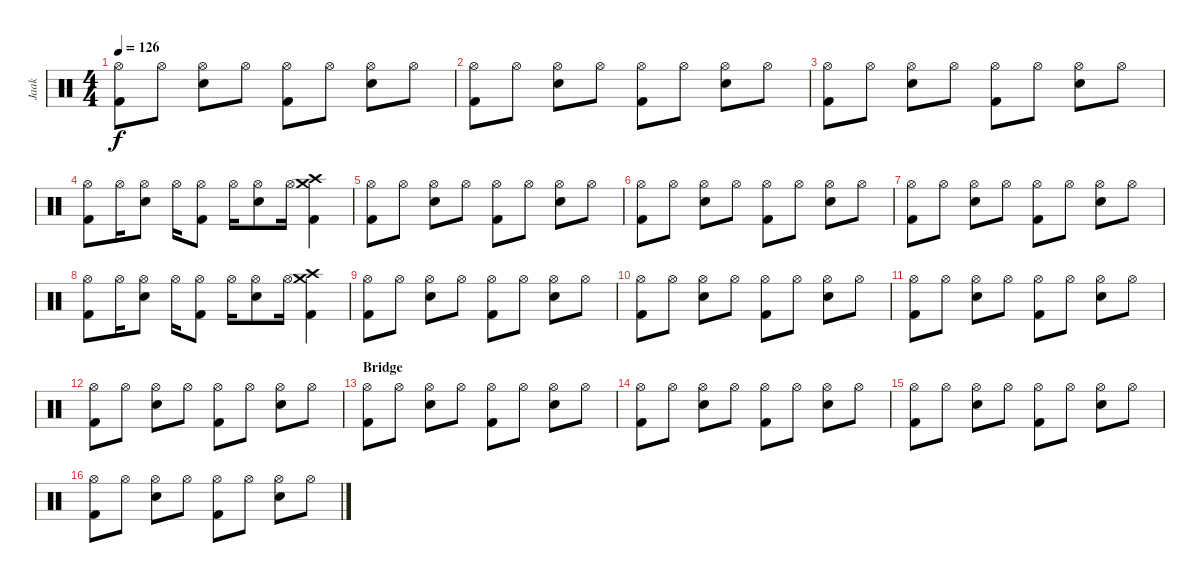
\track ("Jaak" "Jaak") {instrument percussion}
\staff {score}
\articulation defaults
\ts (4 4)
\tempo 126
\clef neutral
\ks c
("Hi-Hat (open)" "Kick (hit) 2").8{dy f} "Hi-Hat (open)".8 ("Hi-Hat (open)" "Snare (hit) 2").8 "Hi-Hat (open)".8 ("Hi-Hat (open)" "Kick (hit) 2").8 "Hi-Hat (open)".8 ("Hi-Hat (open)" "Snare (hit) 2").8 "Hi-Hat (open)".8 |
("Hi-Hat (open)" "Kick (hit) 2").8 "Hi-Hat (open)".8 ("Hi-Hat (open)" "Snare (hit) 2").8 "Hi-Hat (open)".8 ("Hi-Hat (open)" "Kick (hit) 2").8 "Hi-Hat (open)".8 ("Hi-Hat (open)" "Snare (hit) 2").8 "Hi-Hat (open)".8 |
("Hi-Hat (open)" "Kick (hit) 2").8 "Hi-Hat (open)".8 ("Hi-Hat (open)" "Snare (hit) 2").8 "Hi-Hat (open)".8 ("Hi-Hat (open)" "Kick (hit) 2").8 "Hi-Hat (open)".8 ("Hi-Hat (open)" "Snare (hit) 2").8 "Hi-Hat (open)".8 |
("Hi-Hat (open)" "Kick (hit) 2").8 "Hi-Hat (open)".16 ("Hi-Hat (open)" "Snare (hit) 2").8 "Hi-Hat (open)".16 ("Hi-Hat (open)" "Kick (hit) 2").8 "Hi-Hat (open)".16 ("Hi-Hat (open)" "Snare (hit) 2").8 "Hi-Hat (open)".16 ("Crash medium (hit)" "Crash high (hit)" "Kick (hit) 2").4 |
("Hi-Hat (open)" "Kick (hit) 2").8 "Hi-Hat (open)".8 ("Hi-Hat (open)" "Snare (hit) 2").8 "Hi-Hat (open)".8 ("Hi-Hat (open)" "Kick (hit) 2").8 "Hi-Hat (open)".8 ("Hi-Hat (open)" "Snare (hit) 2").8 "Hi-Hat (open)".8 |
("Hi-Hat (open)" "Kick (hit) 2").8 "Hi-Hat (open)".8 ("Hi-Hat (open)" "Snare (hit) 2").8 "Hi-Hat (open)".8 ("Hi-Hat (open)" "Kick (hit) 2").8 "Hi-Hat (open)".8 ("Hi-Hat (open)" "Snare (hit) 2").8 "Hi-Hat (open)".8 |
("Hi-Hat (open)" "Kick (hit) 2").8 "Hi-Hat (open)".8 ("Hi-Hat (open)" "Snare (hit) 2").8 "Hi-Hat (open)".8 ("Hi-Hat (open)" "Kick (hit) 2").8 "Hi-Hat (open)".8 ("Hi-Hat (open)" "Snare (hit) 2").8 "Hi-Hat (open)".8 |
("Hi-Hat (open)" "Kick (hit) 2").8 "Hi-Hat (open)".16 ("Hi-Hat (open)" "Snare (hit) 2").8 "Hi-Hat (open)".16 ("Hi-Hat (open)" "Kick (hit) 2").8 "Hi-Hat (open)".16 ("Hi-Hat (open)" "Snare (hit) 2").8 "Hi-Hat (open)".16 ("Crash medium (hit)" "Crash high (hit)" "Kick (hit) 2").4 |
("Hi-Hat (open)" "Kick (hit) 2").8 "Hi-Hat (open)".8 ("Hi-Hat (open)" "Snare (hit) 2").8 "Hi-Hat (open)".8 ("Hi-Hat (open)" "Kick (hit) 2").8 "Hi-Hat (open)".8 ("Hi-Hat (open)" "Snare (hit) 2").8 "Hi-Hat (open)".8 |
("Hi-Hat (open)" "Kick (hit) 2").8 "Hi-Hat (open)".8 ("Hi-Hat (open)" "Snare (hit) 2").8 "Hi-Hat (open)".8 ("Hi-Hat (open)" "Kick (hit) 2").8 "Hi-Hat (open)".8 ("Hi-Hat (open)" "Snare (hit) 2").8 "Hi-Hat (open)".8 |
("Hi-Hat (open)" "Kick (hit) 2").8 "Hi-Hat (open)".8 ("Hi-Hat (open)" "Snare (hit) 2").8 "Hi-Hat (open)".8 ("Hi-Hat (open)" "Kick (hit) 2").8 "Hi-Hat (open)".8 ("Hi-Hat (open)" "Snare (hit) 2").8 "Hi-Hat (open)".8 |
("Hi-Hat (open)" "Kick (hit) 2").8 "Hi-Hat (open)".8 ("Hi-Hat (open)" "Snare (hit) 2").8 "Hi-Hat (open)".8 ("Hi-Hat (open)" "Kick (hit) 2").8 "Hi-Hat (open)".8 ("Hi-Hat (open)" "Snare (hit) 2").8 "Hi-Hat (open)".8 |
\section ("" "Bridge")
("Hi-Hat (open)" "Kick (hit) 2").8 "Hi-Hat (open)".8 ("Hi-Hat (open)" "Snare (hit) 2").8 "Hi-Hat (open)".8 ("Hi-Hat (open)" "Kick (hit) 2").8 "Hi-Hat (open)".8 ("Hi-Hat (open)" "Snare (hit) 2").8 "Hi-Hat (open)".8 |
("Hi-Hat (open)" "Kick (hit) 2").8 "Hi-Hat (open)".8 ("Hi-Hat (open)" "Snare (hit) 2").8 "Hi-Hat (open)".8 ("Hi-Hat (open)" "Kick (hit) 2").8 "Hi-Hat (open)".8 ("Hi-Hat (open)" "Snare (hit) 2").8 "Hi-Hat (open)".8 |
("Hi-Hat (open)" "Kick (hit) 2").8 "Hi-Hat (open)".8 ("Hi-Hat (open)" "Snare (hit) 2").8 "Hi-Hat (open)".8 ("Hi-Hat (open)" "Kick (hit) 2").8 "Hi-Hat (open)".8 ("Hi-Hat (open)" "Snare (hit) 2").8 "Hi-Hat (open)".8 |
("Hi-Hat (open)" "Kick (hit) 2").8 "Hi-Hat (open)".8 ("Hi-Hat (open)" "Snare (hit) 2").8 "Hi-Hat (open)".8 ("Hi-Hat (open)" "Kick (hit) 2").8 "Hi-Hat (open)".8 ("Hi-Hat (open)" "Snare (hit) 2").8 "Hi-Hat (open)".8
